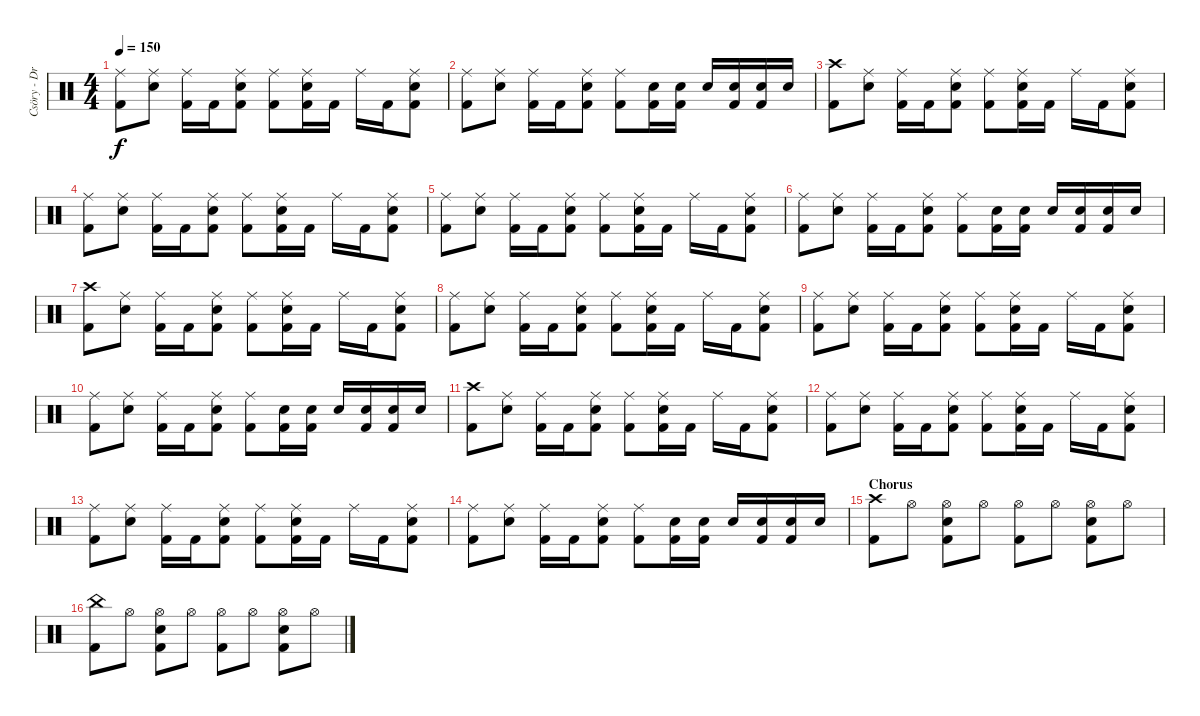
\track ("Csöry - DrumZ" "Csöry - Dr") {instrument percussion}
\staff {score}
\articulation defaults
\ts (4 4)
\tempo 150
\clef neutral
\ks c
("Ride (middle)" "Kick (hit) 2").8{dy f} ("Ride (middle)" "Snare (hit) 2").8 ("Ride (middle)" "Kick (hit) 2").16 "Kick (hit) 2".16 ("Ride (middle)" "Snare (hit) 2" "Kick (hit) 2").8 ("Ride (middle)" "Kick (hit) 2").8 ("Ride (middle)" "Snare (hit) 2" "Kick (hit) 2").16 "Kick (hit) 2".16 "Ride (middle)".16 "Kick (hit) 2".16 ("Ride (middle)" "Snare (hit) 2" "Kick (hit) 2").8 |
("Ride (middle)" "Kick (hit) 2").8 ("Ride (middle)" "Snare (hit) 2").8 ("Ride (middle)" "Kick (hit) 2").16 "Kick (hit) 2".16 ("Ride (middle)" "Snare (hit) 2" "Kick (hit) 2").8 ("Ride (middle)" "Kick (hit) 2").8 ("Snare (hit) 2" "Kick (hit) 2").16 ("Snare (hit) 2" "Kick (hit) 2").16 "Snare (hit) 2".16 ("Snare (hit) 2" "Kick (hit) 2").16 ("Snare (hit) 2" "Kick (hit) 2").16 "Snare (hit) 2".16 |
("Crash high (hit)" "Kick (hit) 2").8 ("Ride (middle)" "Snare (hit) 2").8 ("Ride (middle)" "Kick (hit) 2").16 "Kick (hit) 2".16 ("Ride (middle)" "Snare (hit) 2" "Kick (hit) 2").8 ("Ride (middle)" "Kick (hit) 2").8 ("Ride (middle)" "Snare (hit) 2" "Kick (hit) 2").16 "Kick (hit) 2".16 "Ride (middle)".16 "Kick (hit) 2".16 ("Ride (middle)" "Snare (hit) 2" "Kick (hit) 2").8 |
("Ride (middle)" "Kick (hit) 2").8 ("Ride (middle)" "Snare (hit) 2").8 ("Ride (middle)" "Kick (hit) 2").16 "Kick (hit) 2".16 ("Ride (middle)" "Snare (hit) 2" "Kick (hit) 2").8 ("Ride (middle)" "Kick (hit) 2").8 ("Ride (middle)" "Snare (hit) 2" "Kick (hit) 2").16 "Kick (hit) 2".16 "Ride (middle)".16 "Kick (hit) 2".16 ("Ride (middle)" "Snare (hit) 2" "Kick (hit) 2").8 |
("Ride (middle)" "Kick (hit) 2").8 ("Ride (middle)" "Snare (hit) 2").8 ("Ride (middle)" "Kick (hit) 2").16 "Kick (hit) 2".16 ("Ride (middle)" "Snare (hit) 2" "Kick (hit) 2").8 ("Ride (middle)" "Kick (hit) 2").8 ("Ride (middle)" "Snare (hit) 2" "Kick (hit) 2").16 "Kick (hit) 2".16 "Ride (middle)".16 "Kick (hit) 2".16 ("Ride (middle)" "Snare (hit) 2" "Kick (hit) 2").8 |
("Ride (middle)" "Kick (hit) 2").8 ("Ride (middle)" "Snare (hit) 2").8 ("Ride (middle)" "Kick (hit) 2").16 "Kick (hit) 2".16 ("Ride (middle)" "Snare (hit) 2" "Kick (hit) 2").8 ("Ride (middle)" "Kick (hit) 2").8 ("Snare (hit) 2" "Kick (hit) 2").16 ("Snare (hit) 2" "Kick (hit) 2").16 "Snare (hit) 2".16 ("Snare (hit) 2" "Kick (hit) 2").16 ("Snare (hit) 2" "Kick (hit) 2").16 "Snare (hit) 2".16 |
("Crash high (hit)" "Kick (hit) 2").8 ("Ride (middle)" "Snare (hit) 2").8 ("Ride (middle)" "Kick (hit) 2").16 "Kick (hit) 2".16 ("Ride (middle)" "Snare (hit) 2" "Kick (hit) 2").8 ("Ride (middle)" "Kick (hit) 2").8 ("Ride (middle)" "Snare (hit) 2" "Kick (hit) 2").16 "Kick (hit) 2".16 "Ride (middle)".16 "Kick (hit) 2".16 ("Ride (middle)" "Snare (hit) 2" "Kick (hit) 2").8 |
("Ride (middle)" "Kick (hit) 2").8 ("Ride (middle)" "Snare (hit) 2").8 ("Ride (middle)" "Kick (hit) 2").16 "Kick (hit) 2".16 ("Ride (middle)" "Snare (hit) 2" "Kick (hit) 2").8 ("Ride (middle)" "Kick (hit) 2").8 ("Ride (middle)" "Snare (hit) 2" "Kick (hit) 2").16 "Kick (hit) 2".16 "Ride (middle)".16 "Kick (hit) 2".16 ("Ride (middle)" "Snare (hit) 2" "Kick (hit) 2").8 |
("Ride (middle)" "Kick (hit) 2").8 ("Ride (middle)" "Snare (hit) 2").8 ("Ride (middle)" "Kick (hit) 2").16 "Kick (hit) 2".16 ("Ride (middle)" "Snare (hit) 2" "Kick (hit) 2").8 ("Ride (middle)" "Kick (hit) 2").8 ("Ride (middle)" "Snare (hit) 2" "Kick (hit) 2").16 "Kick (hit) 2".16 "Ride (middle)".16 "Kick (hit) 2".16 ("Ride (middle)" "Snare (hit) 2" "Kick (hit) 2").8 |
("Ride (middle)" "Kick (hit) 2").8 ("Ride (middle)" "Snare (hit) 2").8 ("Ride (middle)" "Kick (hit) 2").16 "Kick (hit) 2".16 ("Ride (middle)" "Snare (hit) 2" "Kick (hit) 2").8 ("Ride (middle)" "Kick (hit) 2").8 ("Snare (hit) 2" "Kick (hit) 2").16 ("Snare (hit) 2" "Kick (hit) 2").16 "Snare (hit) 2".16 ("Snare (hit) 2" "Kick (hit) 2").16 ("Snare (hit) 2" "Kick (hit) 2").16 "Snare (hit) 2".16 |
("Crash high (hit)" "Kick (hit) 2").8 ("Ride (middle)" "Snare (hit) 2").8 ("Ride (middle)" "Kick (hit) 2").16 "Kick (hit) 2".16 ("Ride (middle)" "Snare (hit) 2" "Kick (hit) 2").8 ("Ride (middle)" "Kick (hit) 2").8 ("Ride (middle)" "Snare (hit) 2" "Kick (hit) 2").16 "Kick (hit) 2".16 "Ride (middle)".16 "Kick (hit) 2".16 ("Ride (middle)" "Snare (hit) 2" "Kick (hit) 2").8 |
("Ride (middle)" "Kick (hit) 2").8 ("Ride (middle)" "Snare (hit) 2").8 ("Ride (middle)" "Kick (hit) 2").16 "Kick (hit) 2".16 ("Ride (middle)" "Snare (hit) 2" "Kick (hit) 2").8 ("Ride (middle)" "Kick (hit) 2").8 ("Ride (middle)" "Snare (hit) 2" "Kick (hit) 2").16 "Kick (hit) 2".16 "Ride (middle)".16 "Kick (hit) 2".16 ("Ride (middle)" "Snare (hit) 2" "Kick (hit) 2").8 |
("Ride (middle)" "Kick (hit) 2").8 ("Ride (middle)" "Snare (hit) 2").8 ("Ride (middle)" "Kick (hit) 2").16 "Kick (hit) 2".16 ("Ride (middle)" "Snare (hit) 2" "Kick (hit) 2").8 ("Ride (middle)" "Kick (hit) 2").8 ("Ride (middle)" "Snare (hit) 2" "Kick (hit) 2").16 "Kick (hit) 2".16 "Ride (middle)".16 "Kick (hit) 2".16 ("Ride (middle)" "Snare (hit) 2" "Kick (hit) 2").8 |
("Ride (middle)" "Kick (hit) 2").8 ("Ride (middle)" "Snare (hit) 2").8 ("Ride (middle)" "Kick (hit) 2").16 "Kick (hit) 2".16 ("Ride (middle)" "Snare (hit) 2" "Kick (hit) 2").8 ("Ride (middle)" "Kick (hit) 2").8 ("Snare (hit) 2" "Kick (hit) 2").16 ("Snare (hit) 2" "Kick (hit) 2").16 "Snare (hit) 2".16 ("Snare (hit) 2" "Kick (hit) 2").16 ("Snare (hit) 2" "Kick (hit) 2").16 "Snare (hit) 2".16 |
\section ("" "Chorus")
("Crash high (hit)" "Kick (hit) 2").8 "Hi-Hat (open)".8 ("Hi-Hat (open)" "Snare (hit) 2" "Kick (hit) 2").8 "Hi-Hat (open)".8 ("Hi-Hat (open)" "Kick (hit) 2").8 "Hi-Hat (open)".8 ("Hi-Hat (open)" "Snare (hit) 2" "Kick (hit) 2").8 "Hi-Hat (open)".8 |
("China (hit)" "Kick (hit) 2").8 "Hi-Hat (open)".8 ("Hi-Hat (open)" "Snare (hit) 2" "Kick (hit) 2").8 "Hi-Hat (open)".8 ("Hi-Hat (open)" "Kick (hit) 2").8 "Hi-Hat (open)".8 ("Hi-Hat (open)" "Snare (hit) 2" "Kick (hit) 2").8 "Hi-Hat (open)".8
